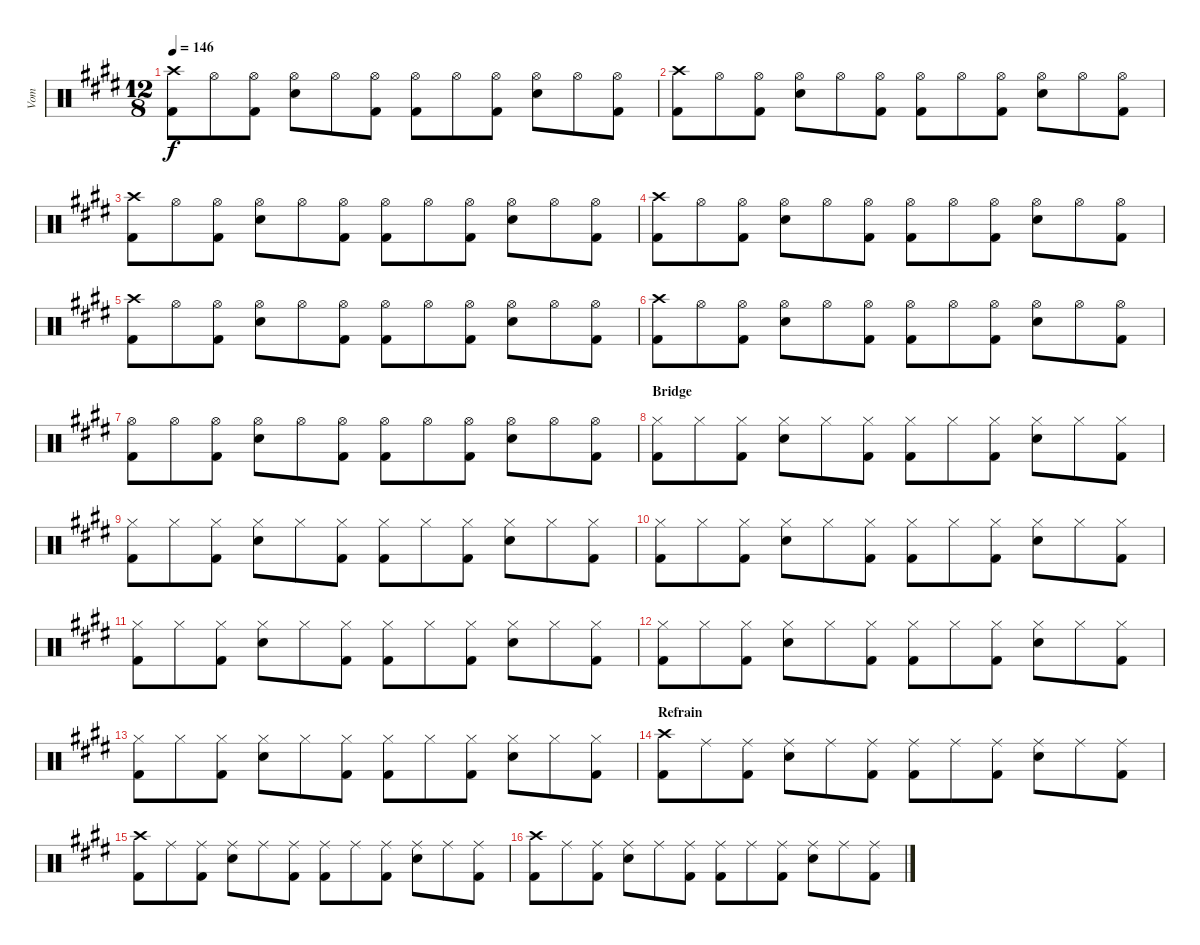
\track ("Vom" "Vom") {instrument percussion}
\staff {score}
\articulation defaults
\ts (12 8)
\tempo 146
\clef neutral
\ks e
("Crash high (hit)" "Kick (hit) 2").8{dy f} "Hi-Hat (open)".8 ("Hi-Hat (open)" "Kick (hit) 2").8 ("Hi-Hat (open)" "Snare (hit) 2").8 "Hi-Hat (open)".8 ("Hi-Hat (open)" "Kick (hit) 2").8 ("Hi-Hat (open)" "Kick (hit) 2").8 "Hi-Hat (open)".8 ("Hi-Hat (open)" "Kick (hit) 2").8 ("Hi-Hat (open)" "Snare (hit) 2").8 "Hi-Hat (open)".8 ("Hi-Hat (open)" "Kick (hit) 2").8 |
("Crash high (hit)" "Kick (hit) 2").8 "Hi-Hat (open)".8 ("Hi-Hat (open)" "Kick (hit) 2").8 ("Hi-Hat (open)" "Snare (hit) 2").8 "Hi-Hat (open)".8 ("Hi-Hat (open)" "Kick (hit) 2").8 ("Hi-Hat (open)" "Kick (hit) 2").8 "Hi-Hat (open)".8 ("Hi-Hat (open)" "Kick (hit) 2").8 ("Hi-Hat (open)" "Snare (hit) 2").8 "Hi-Hat (open)".8 ("Hi-Hat (open)" "Kick (hit) 2").8 |
("Crash high (hit)" "Kick (hit) 2").8 "Hi-Hat (open)".8 ("Hi-Hat (open)" "Kick (hit) 2").8 ("Hi-Hat (open)" "Snare (hit) 2").8 "Hi-Hat (open)".8 ("Hi-Hat (open)" "Kick (hit) 2").8 ("Hi-Hat (open)" "Kick (hit) 2").8 "Hi-Hat (open)".8 ("Hi-Hat (open)" "Kick (hit) 2").8 ("Hi-Hat (open)" "Snare (hit) 2").8 "Hi-Hat (open)".8 ("Hi-Hat (open)" "Kick (hit) 2").8 |
("Crash high (hit)" "Kick (hit) 2").8 "Hi-Hat (open)".8 ("Hi-Hat (open)" "Kick (hit) 2").8 ("Hi-Hat (open)" "Snare (hit) 2").8 "Hi-Hat (open)".8 ("Hi-Hat (open)" "Kick (hit) 2").8 ("Hi-Hat (open)" "Kick (hit) 2").8 "Hi-Hat (open)".8 ("Hi-Hat (open)" "Kick (hit) 2").8 ("Hi-Hat (open)" "Snare (hit) 2").8 "Hi-Hat (open)".8 ("Hi-Hat (open)" "Kick (hit) 2").8 |
("Crash high (hit)" "Kick (hit) 2").8 "Hi-Hat (open)".8 ("Hi-Hat (open)" "Kick (hit) 2").8 ("Hi-Hat (open)" "Snare (hit) 2").8 "Hi-Hat (open)".8 ("Hi-Hat (open)" "Kick (hit) 2").8 ("Hi-Hat (open)" "Kick (hit) 2").8 "Hi-Hat (open)".8 ("Hi-Hat (open)" "Kick (hit) 2").8 ("Hi-Hat (open)" "Snare (hit) 2").8 "Hi-Hat (open)".8 ("Hi-Hat (open)" "Kick (hit) 2").8 |
("Crash high (hit)" "Kick (hit) 2").8 "Hi-Hat (open)".8 ("Hi-Hat (open)" "Kick (hit) 2").8 ("Hi-Hat (open)" "Snare (hit) 2").8 "Hi-Hat (open)".8 ("Hi-Hat (open)" "Kick (hit) 2").8 ("Hi-Hat (open)" "Kick (hit) 2").8 "Hi-Hat (open)".8 ("Hi-Hat (open)" "Kick (hit) 2").8 ("Hi-Hat (open)" "Snare (hit) 2").8 "Hi-Hat (open)".8 ("Hi-Hat (open)" "Kick (hit) 2").8 |
("Hi-Hat (open)" "Kick (hit) 2").8 "Hi-Hat (open)".8 ("Hi-Hat (open)" "Kick (hit) 2").8 ("Hi-Hat (open)" "Snare (hit) 2").8 "Hi-Hat (open)".8 ("Hi-Hat (open)" "Kick (hit) 2").8 ("Hi-Hat (open)" "Kick (hit) 2").8 "Hi-Hat (open)".8 ("Hi-Hat (open)" "Kick (hit) 2").8 ("Hi-Hat (open)" "Snare (hit) 2").8 "Hi-Hat (open)".8 ("Hi-Hat (open)" "Kick (hit) 2").8 |
\section ("" "Bridge")
("Hi-Hat (closed)" "Kick (hit) 2").8 "Hi-Hat (closed)".8 ("Hi-Hat (closed)" "Kick (hit) 2").8 ("Hi-Hat (closed)" "Snare (hit) 2").8 "Hi-Hat (closed)".8 ("Hi-Hat (closed)" "Kick (hit) 2").8 ("Hi-Hat (closed)" "Kick (hit) 2").8 "Hi-Hat (closed)".8 ("Hi-Hat (closed)" "Kick (hit) 2").8 ("Hi-Hat (closed)" "Snare (hit) 2").8 "Hi-Hat (closed)".8 ("Hi-Hat (closed)" "Kick (hit) 2").8 |
("Hi-Hat (closed)" "Kick (hit) 2").8 "Hi-Hat (closed)".8 ("Hi-Hat (closed)" "Kick (hit) 2").8 ("Hi-Hat (closed)" "Snare (hit) 2").8 "Hi-Hat (closed)".8 ("Hi-Hat (closed)" "Kick (hit) 2").8 ("Hi-Hat (closed)" "Kick (hit) 2").8 "Hi-Hat (closed)".8 ("Hi-Hat (closed)" "Kick (hit) 2").8 ("Hi-Hat (closed)" "Snare (hit) 2").8 "Hi-Hat (closed)".8 ("Hi-Hat (closed)" "Kick (hit) 2").8 |
("Hi-Hat (closed)" "Kick (hit) 2").8 "Hi-Hat (closed)".8 ("Hi-Hat (closed)" "Kick (hit) 2").8 ("Hi-Hat (closed)" "Snare (hit) 2").8 "Hi-Hat (closed)".8 ("Hi-Hat (closed)" "Kick (hit) 2").8 ("Hi-Hat (closed)" "Kick (hit) 2").8 "Hi-Hat (closed)".8 ("Hi-Hat (closed)" "Kick (hit) 2").8 ("Hi-Hat (closed)" "Snare (hit) 2").8 "Hi-Hat (closed)".8 ("Hi-Hat (closed)" "Kick (hit) 2").8 |
("Hi-Hat (closed)" "Kick (hit) 2").8 "Hi-Hat (closed)".8 ("Hi-Hat (closed)" "Kick (hit) 2").8 ("Hi-Hat (closed)" "Snare (hit) 2").8 "Hi-Hat (closed)".8 ("Hi-Hat (closed)" "Kick (hit) 2").8 ("Hi-Hat (closed)" "Kick (hit) 2").8 "Hi-Hat (closed)".8 ("Hi-Hat (closed)" "Kick (hit) 2").8 ("Hi-Hat (closed)" "Snare (hit) 2").8 "Hi-Hat (closed)".8 ("Hi-Hat (closed)" "Kick (hit) 2").8 |
("Hi-Hat (closed)" "Kick (hit) 2").8 "Hi-Hat (closed)".8 ("Hi-Hat (closed)" "Kick (hit) 2").8 ("Hi-Hat (closed)" "Snare (hit) 2").8 "Hi-Hat (closed)".8 ("Hi-Hat (closed)" "Kick (hit) 2").8 ("Hi-Hat (closed)" "Kick (hit) 2").8 "Hi-Hat (closed)".8 ("Hi-Hat (closed)" "Kick (hit) 2").8 ("Hi-Hat (closed)" "Snare (hit) 2").8 "Hi-Hat (closed)".8 ("Hi-Hat (closed)" "Kick (hit) 2").8 |
("Hi-Hat (closed)" "Kick (hit) 2").8 "Hi-Hat (closed)".8 ("Hi-Hat (closed)" "Kick (hit) 2").8 ("Hi-Hat (closed)" "Snare (hit) 2").8 "Hi-Hat (closed)".8 ("Hi-Hat (closed)" "Kick (hit) 2").8 ("Hi-Hat (closed)" "Kick (hit) 2").8 "Hi-Hat (closed)".8 ("Hi-Hat (closed)" "Kick (hit) 2").8 ("Hi-Hat (closed)" "Snare (hit) 2").8 "Hi-Hat (closed)".8 ("Hi-Hat (closed)" "Kick (hit) 2").8 |
\section ("" "Refrain")
("Crash high (hit)" "Kick (hit) 2").8 "Ride (middle)".8 ("Ride (middle)" "Kick (hit) 2").8 ("Ride (middle)" "Snare (hit) 2").8 "Ride (middle)".8 ("Ride (middle)" "Kick (hit) 2").8 ("Ride (middle)" "Kick (hit) 2").8 "Ride (middle)".8 ("Ride (middle)" "Kick (hit) 2").8 ("Ride (middle)" "Snare (hit) 2").8 "Ride (middle)".8 ("Ride (middle)" "Kick (hit) 2").8 |
("Crash high (hit)" "Kick (hit) 2").8 "Ride (middle)".8 ("Ride (middle)" "Kick (hit) 2").8 ("Ride (middle)" "Snare (hit) 2").8 "Ride (middle)".8 ("Ride (middle)" "Kick (hit) 2").8 ("Ride (middle)" "Kick (hit) 2").8 "Ride (middle)".8 ("Ride (middle)" "Kick (hit) 2").8 ("Ride (middle)" "Snare (hit) 2").8 "Ride (middle)".8 ("Ride (middle)" "Kick (hit) 2").8 |
("Crash high (hit)" "Kick (hit) 2").8 "Ride (middle)".8 ("Ride (middle)" "Kick (hit) 2").8 ("Ride (middle)" "Snare (hit) 2").8 "Ride (middle)".8 ("Ride (middle)" "Kick (hit) 2").8 ("Ride (middle)" "Kick (hit) 2").8 "Ride (middle)".8 ("Ride (middle)" "Kick (hit) 2").8 ("Ride (middle)" "Snare (hit) 2").8 "Ride (middle)".8 ("Ride (middle)" "Kick (hit) 2").8
